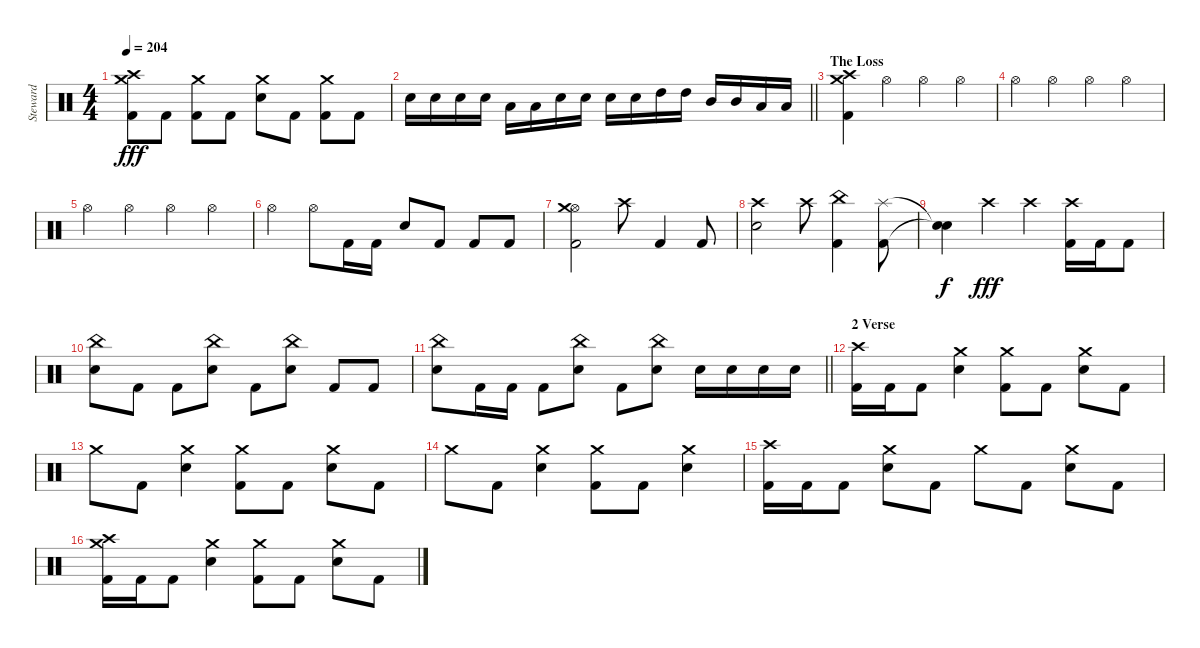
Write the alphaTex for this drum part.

\track ("Steward" "Steward") {instrument percussion}
\staff {score}
\articulation defaults
\ts (4 4)
\tempo 204
\clef neutral
\ks c
("Crash medium (hit)" "Crash high (hit)" "Kick (hit) 2").8{dy fff} "Kick (hit) 2".8 ("Crash medium (hit)" "Kick (hit) 2").8 "Kick (hit) 2".8 ("Crash medium (hit)" "Electric Snare (hit)").8 "Kick (hit) 2".8 ("Crash medium (hit)" "Kick (hit) 2").8 "Kick (hit) 2".8 |
\barLineRight lightlight "Electric Snare (hit)".16 "Electric Snare (hit)".16 "Electric Snare (hit)".16 "Electric Snare (hit)".16 "Low Tom (hit)".16 "Low Tom (hit)".16 "Electric Snare (hit)".16 "Electric Snare (hit)".16 "Electric Snare (hit)".16 "Electric Snare (hit)".16 "High Tom (hit)".16 "High Tom (hit)".16 "Mid Tom (hit)".16 "Mid Tom (hit)".16 "Low Tom (hit)".16 "Low Tom (hit)".16
|
\section ("" "The Loss")
("Crash medium (hit)" "Crash high (hit)" "Kick (hit) 2").4 "Hi-Hat (open)".4 "Hi-Hat (open)".4 "Hi-Hat (open)".4 |
"Hi-Hat (open)".4 "Hi-Hat (open)".4 "Hi-Hat (open)".4 "Hi-Hat (open)".4 |
"Hi-Hat (open)".4 "Hi-Hat (open)".4 "Hi-Hat (open)".4 "Hi-Hat (open)".4 |
"Hi-Hat (open)".4 "Hi-Hat (open)".8 "Kick (hit) 2".16 "Kick (hit) 2".16 "Electric Snare (hit)".8 "Kick (hit) 2".8 "Kick (hit) 2".8 "Kick (hit) 2".8 |
("Hi-Hat (open)" "Crash medium (hit)" "Kick (hit) 2").2 "Crash high (hit)".8 "Kick (hit) 2".4 "Kick (hit) 2".8 |
("Crash high (hit)" "Electric Snare (hit)").2 "Crash high (hit)".8 ("China (hit)" "Kick (hit) 2").4 ("Splash (hit)" "Kick (hit) 2").8 |
("Snare (hit)"{t} "Snare (hit)"{t}).4{dy f} "Crash high (hit)".4{dy fff} "Crash high (hit)".4 ("Crash high (hit)" "Kick (hit) 2").16 "Kick (hit) 2".16 "Kick (hit) 2".8 |
("China (hit)" "Electric Snare (hit)").8 "Kick (hit) 2".8 "Kick (hit) 2".8 ("China (hit)" "Electric Snare (hit)").8 "Kick (hit) 2".8 ("China (hit)" "Electric Snare (hit)").8 "Kick (hit) 2".8 "Kick (hit) 2".8 |
\barLineRight lightlight
("China (hit)" "Electric Snare (hit)").8 "Kick (hit) 2".16 "Kick (hit) 2".16 "Kick (hit) 2".8 ("China (hit)" "Electric Snare (hit)").8 "Kick (hit) 2".8 ("China (hit)" "Electric Snare (hit)").8 "Electric Snare (hit)".16 "Electric Snare (hit)".16 "Electric Snare (hit)".16 "Electric Snare (hit)".16 |
\section ("" "2 Verse ")
("Crash high (hit)" "Kick (hit) 2").16 "Kick (hit) 2".16 "Kick (hit) 2".8 ("Crash medium (hit)" "Electric Snare (hit)").4 ("Crash medium (hit)" "Kick (hit) 2").8 "Kick (hit) 2".8 ("Crash medium (hit)" "Electric Snare (hit)").8 "Kick (hit) 2".8 |
"Crash medium (hit)".8 "Kick (hit) 2".8 ("Crash medium (hit)" "Electric Snare (hit)").4 ("Crash medium (hit)" "Kick (hit) 2").8 "Kick (hit) 2".8 ("Crash medium (hit)" "Electric Snare (hit)").8 "Kick (hit) 2".8 |
"Crash medium (hit)".8 "Kick (hit) 2".8 ("Crash medium (hit)" "Electric Snare (hit)").4 ("Crash medium (hit)" "Kick (hit) 2").8 "Kick (hit) 2".8 ("Crash medium (hit)" "Electric Snare (hit)").4 |
("Crash high (hit)" "Kick (hit) 2").16 "Kick (hit) 2".16 "Kick (hit) 2".8 ("Crash medium (hit)" "Electric Snare (hit)").8 "Kick (hit) 2".8 "Crash medium (hit)".8 "Kick (hit) 2".8 ("Crash medium (hit)" "Electric Snare (hit)").8 "Kick (hit) 2".8 |
("Crash high (hit)" "Crash medium (hit)" "Kick (hit) 2").16 "Kick (hit) 2".16 "Kick (hit) 2".8 ("Crash medium (hit)" "Electric Snare (hit)").4 ("Crash medium (hit)" "Kick (hit) 2").8 "Kick (hit) 2".8 ("Crash medium (hit)" "Electric Snare (hit)").8 "Kick (hit) 2".8
